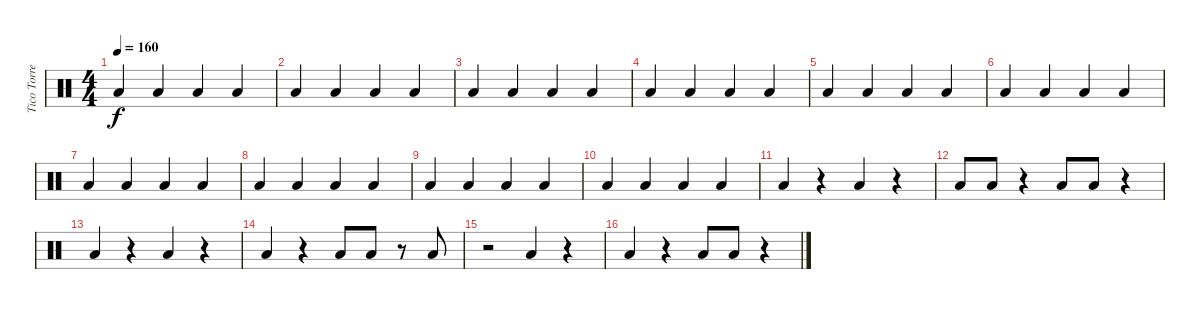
\track ("Tico Torres" "Tico Torre") {instrument percussion}
\staff {score}
\articulation defaults
\ts (4 4)
\tempo 160
\clef neutral
\ks c "Low Floor Tom (hit)".4{dy f} "Low Floor Tom (hit)".4 "Low Floor Tom (hit)".4 "Low Floor Tom (hit)".4
|
"Low Floor Tom (hit)".4 "Low Floor Tom (hit)".4 "Low Floor Tom (hit)".4 "Low Floor Tom (hit)".4 |
"Low Floor Tom (hit)".4 "Low Floor Tom (hit)".4 "Low Floor Tom (hit)".4 "Low Floor Tom (hit)".4 |
"Low Floor Tom (hit)".4 "Low Floor Tom (hit)".4 "Low Floor Tom (hit)".4 "Low Floor Tom (hit)".4 |
"Low Floor Tom (hit)".4 "Low Floor Tom (hit)".4 "Low Floor Tom (hit)".4 "Low Floor Tom (hit)".4 |
"Low Floor Tom (hit)".4 "Low Floor Tom (hit)".4 "Low Floor Tom (hit)".4 "Low Floor Tom (hit)".4 |
"Low Floor Tom (hit)".4 "Low Floor Tom (hit)".4 "Low Floor Tom (hit)".4 "Low Floor Tom (hit)".4 |
"Low Floor Tom (hit)".4 "Low Floor Tom (hit)".4 "Low Floor Tom (hit)".4 "Low Floor Tom (hit)".4 |
"Low Floor Tom (hit)".4 "Low Floor Tom (hit)".4 "Low Floor Tom (hit)".4 "Low Floor Tom (hit)".4 |
"Low Floor Tom (hit)".4 "Low Floor Tom (hit)".4 "Low Floor Tom (hit)".4 "Low Floor Tom (hit)".4 |
"Low Floor Tom (hit)".4 r.4 "Low Floor Tom (hit)".4 r.4 |
"Low Floor Tom (hit)".8 "Low Floor Tom (hit)".8 r.4 "Low Floor Tom (hit)".8 "Low Floor Tom (hit)".8 r.4 |
"Low Floor Tom (hit)".4 r.4 "Low Floor Tom (hit)".4 r.4 |
"Low Floor Tom (hit)".4 r.4 "Low Floor Tom (hit)".8 "Low Floor Tom (hit)".8 r.8 "Low Floor Tom (hit)".8 |
r.2 "Low Floor Tom (hit)".4 r.4 |
"Low Floor Tom (hit)".4 r.4 "Low Floor Tom (hit)".8 "Low Floor Tom (hit)".8 r.4
